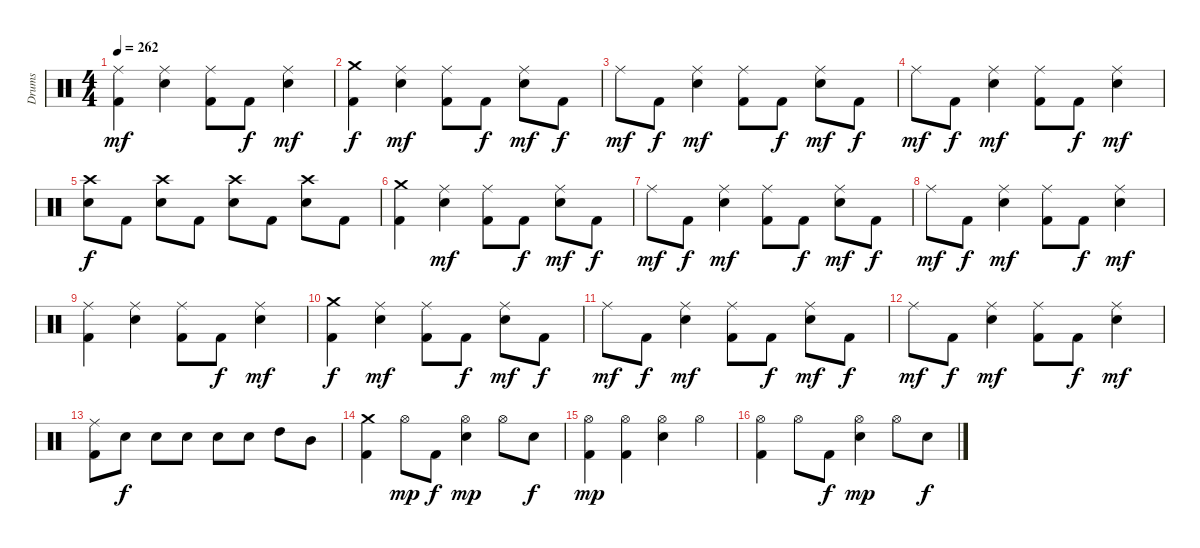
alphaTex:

\track ("Drums" "Drums") {instrument percussion}
\staff {score}
\articulation defaults
\ts (4 4)
\tempo 262
\clef neutral
\ks c
("Ride (middle)" "Kick (hit) 2").4{dy mf} ("Ride (middle)" "Snare (hit) 2").4 ("Ride (middle)" "Kick (hit) 2").8 "Kick (hit) 2".8{dy f} ("Ride (middle)" "Snare (hit) 2").4{dy mf} |
("Crash medium (hit)" "Kick (hit) 2").4{dy f} ("Ride (middle)" "Snare (hit) 2").4{dy mf} ("Ride (middle)" "Kick (hit) 2").8 "Kick (hit) 2".8{dy f} ("Ride (middle)" "Snare (hit) 2").8{dy mf} "Kick (hit) 2".8{dy f} |
"Ride (middle)".8{dy mf} "Kick (hit) 2".8{dy f} ("Ride (middle)" "Snare (hit) 2").4{dy mf} ("Ride (middle)" "Kick (hit) 2").8 "Kick (hit) 2".8{dy f} ("Ride (middle)" "Snare (hit) 2").8{dy mf} "Kick (hit) 2".8{dy f} |
"Ride (middle)".8{dy mf} "Kick (hit) 2".8{dy f} ("Ride (middle)" "Snare (hit) 2").4{dy mf} ("Ride (middle)" "Kick (hit) 2").8 "Kick (hit) 2".8{dy f} ("Ride (middle)" "Snare (hit) 2").4{dy mf} |
("Crash high (hit)" "Snare (hit) 2").8{dy f} "Kick (hit) 2".8 ("Crash high (hit)" "Snare (hit) 2").8 "Kick (hit) 2".8 ("Crash high (hit)" "Snare (hit) 2").8 "Kick (hit) 2".8 ("Crash high (hit)" "Snare (hit) 2").8 "Kick (hit) 2".8 |
("Crash medium (hit)" "Kick (hit) 2").4 ("Ride (middle)" "Snare (hit) 2").4{dy mf} ("Ride (middle)" "Kick (hit) 2").8 "Kick (hit) 2".8{dy f} ("Ride (middle)" "Snare (hit) 2").8{dy mf} "Kick (hit) 2".8{dy f} |
"Ride (middle)".8{dy mf} "Kick (hit) 2".8{dy f} ("Ride (middle)" "Snare (hit) 2").4{dy mf} ("Ride (middle)" "Kick (hit) 2").8 "Kick (hit) 2".8{dy f} ("Ride (middle)" "Snare (hit) 2").8{dy mf} "Kick (hit) 2".8{dy f} |
"Ride (middle)".8{dy mf} "Kick (hit) 2".8{dy f} ("Ride (middle)" "Snare (hit) 2").4{dy mf} ("Ride (middle)" "Kick (hit) 2").8 "Kick (hit) 2".8{dy f} ("Ride (middle)" "Snare (hit) 2").4{dy mf} |
("Ride (middle)" "Kick (hit) 2").4 ("Ride (middle)" "Snare (hit) 2").4 ("Ride (middle)" "Kick (hit) 2").8 "Kick (hit) 2".8{dy f} ("Ride (middle)" "Snare (hit) 2").4{dy mf} |
("Crash medium (hit)" "Kick (hit) 2").4{dy f} ("Ride (middle)" "Snare (hit) 2").4{dy mf} ("Ride (middle)" "Kick (hit) 2").8 "Kick (hit) 2".8{dy f} ("Ride (middle)" "Snare (hit) 2").8{dy mf} "Kick (hit) 2".8{dy f} |
"Ride (middle)".8{dy mf} "Kick (hit) 2".8{dy f} ("Ride (middle)" "Snare (hit) 2").4{dy mf} ("Ride (middle)" "Kick (hit) 2").8 "Kick (hit) 2".8{dy f} ("Ride (middle)" "Snare (hit) 2").8{dy mf} "Kick (hit) 2".8{dy f} |
"Ride (middle)".8{dy mf} "Kick (hit) 2".8{dy f} ("Ride (middle)" "Snare (hit) 2").4{dy mf} ("Ride (middle)" "Kick (hit) 2").8 "Kick (hit) 2".8{dy f} ("Ride (middle)" "Snare (hit) 2").4{dy mf} |
("Ride (middle)" "Kick (hit) 2").8 "Snare (hit) 2".8{dy f} "Snare (hit) 2".8 "Snare (hit) 2".8 "Snare (hit) 2".8 "Snare (hit) 2".8 "High Tom (hit)".8 "Mid Tom (hit)".8 |
("Crash medium (hit)" "Kick (hit) 2").4 "Hi-Hat (open)".8{dy mp} "Kick (hit) 2".8{dy f} ("Hi-Hat (open)" "Snare (hit) 2").4{dy mp} "Hi-Hat (open)".8 "Snare (hit) 2".8{dy f} |
("Hi-Hat (open)" "Kick (hit) 2").4{dy mp} ("Hi-Hat (open)" "Kick (hit) 2").4 ("Hi-Hat (open)" "Snare (hit) 2").4 "Hi-Hat (open)".4 |
("Hi-Hat (open)" "Kick (hit) 2").4 "Hi-Hat (open)".8 "Kick (hit) 2".8{dy f} ("Hi-Hat (open)" "Snare (hit) 2").4{dy mp} "Hi-Hat (open)".8 "Snare (hit) 2".8{dy f}
